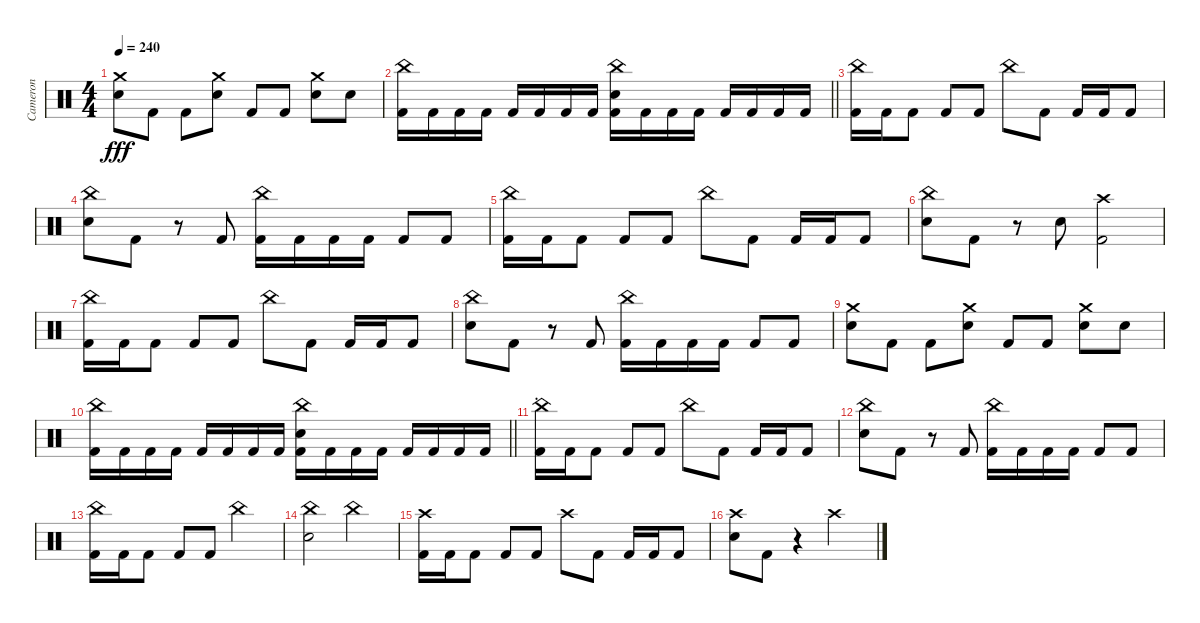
\track ("Cameron" "Cameron") {instrument percussion}
\staff {score}
\articulation defaults
\ts (4 4)
\tempo 240
\clef neutral
\ks c
("Crash medium (hit)" "Electric Snare (hit)").8{dy fff} "Kick (hit) 2".8 "Kick (hit) 2".8 ("Crash medium (hit)" "Electric Snare (hit)").8 "Kick (hit) 2".8 "Kick (hit) 2".8 ("Crash medium (hit)" "Electric Snare (hit)").8 "Electric Snare (hit)".8 |
\barLineRight lightlight
("China (hit)" "Kick (hit) 2").16 "Kick (hit) 2".16 "Kick (hit) 2".16 "Kick (hit) 2".16 "Kick (hit) 2".16 "Kick (hit) 2".16 "Kick (hit) 2".16 "Kick (hit) 2".16 ("China (hit)" "Electric Snare (hit)" "Kick (hit) 2").16 "Kick (hit) 2".16 "Kick (hit) 2".16 "Kick (hit) 2".16 "Kick (hit) 2".16 "Kick (hit) 2".16 "Kick (hit) 2".16 "Kick (hit) 2".16 |
("China (hit)" "Kick (hit) 2").16 "Kick (hit) 2".16 "Kick (hit) 2".8 "Kick (hit) 2".8 "Kick (hit) 2".8 "China (hit)".8 "Kick (hit) 2".8 "Kick (hit) 2".16 "Kick (hit) 2".16 "Kick (hit) 2".8 |
("China (hit)" "Electric Snare (hit)").8 "Kick (hit) 2".8 r.8 "Kick (hit) 2".8 ("China (hit)" "Kick (hit) 2").16 "Kick (hit) 2".16 "Kick (hit) 2".16 "Kick (hit) 2".16 "Kick (hit) 2".8 "Kick (hit) 2".8 |
("China (hit)" "Kick (hit) 2").16 "Kick (hit) 2".16 "Kick (hit) 2".8 "Kick (hit) 2".8 "Kick (hit) 2".8 "China (hit)".8 "Kick (hit) 2".8 "Kick (hit) 2".16 "Kick (hit) 2".16 "Kick (hit) 2".8 |
("China (hit)" "Electric Snare (hit)").8 "Kick (hit) 2".8 r.8 "Electric Snare (hit)".8 ("Crash high (hit)" "Kick (hit) 2").2 |
("China (hit)" "Kick (hit) 2").16 "Kick (hit) 2".16 "Kick (hit) 2".8 "Kick (hit) 2".8 "Kick (hit) 2".8 "China (hit)".8 "Kick (hit) 2".8 "Kick (hit) 2".16 "Kick (hit) 2".16 "Kick (hit) 2".8 |
("China (hit)" "Electric Snare (hit)").8 "Kick (hit) 2".8 r.8 "Kick (hit) 2".8 ("China (hit)" "Kick (hit) 2").16 "Kick (hit) 2".16 "Kick (hit) 2".16 "Kick (hit) 2".16 "Kick (hit) 2".8 "Kick (hit) 2".8 |
("Crash medium (hit)" "Electric Snare (hit)").8 "Kick (hit) 2".8 "Kick (hit) 2".8 ("Crash medium (hit)" "Electric Snare (hit)").8 "Kick (hit) 2".8 "Kick (hit) 2".8 ("Crash medium (hit)" "Electric Snare (hit)").8 "Electric Snare (hit)".8 |
\barLineRight lightlight
("China (hit)" "Kick (hit) 2").16 "Kick (hit) 2".16 "Kick (hit) 2".16 "Kick (hit) 2".16 "Kick (hit) 2".16 "Kick (hit) 2".16 "Kick (hit) 2".16 "Kick (hit) 2".16 ("China (hit)" "Electric Snare (hit)" "Kick (hit) 2").16 "Kick (hit) 2".16 "Kick (hit) 2".16 "Kick (hit) 2".16 "Kick (hit) 2".16 "Kick (hit) 2".16 "Kick (hit) 2".16 "Kick (hit) 2".16 |
\section ("" ".")
("China (hit)" "Kick (hit) 2").16 "Kick (hit) 2".16 "Kick (hit) 2".8 "Kick (hit) 2".8 "Kick (hit) 2".8 "China (hit)".8 "Kick (hit) 2".8 "Kick (hit) 2".16 "Kick (hit) 2".16 "Kick (hit) 2".8 |
("China (hit)" "Electric Snare (hit)").8 "Kick (hit) 2".8 r.8 "Kick (hit) 2".8 ("China (hit)" "Kick (hit) 2").16 "Kick (hit) 2".16 "Kick (hit) 2".16 "Kick (hit) 2".16 "Kick (hit) 2".8 "Kick (hit) 2".8 |
("China (hit)" "Kick (hit) 2").16 "Kick (hit) 2".16 "Kick (hit) 2".8 "Kick (hit) 2".8 "Kick (hit) 2".8 "China (hit)".2 |
("China (hit)" "Electric Snare (hit)").2 "China (hit)".2 |
("Crash high (hit)" "Kick (hit) 2").16 "Kick (hit) 2".16 "Kick (hit) 2".8 "Kick (hit) 2".8 "Kick (hit) 2".8 "Crash high (hit)".8 "Kick (hit) 2".8 "Kick (hit) 2".16 "Kick (hit) 2".16 "Kick (hit) 2".8 |
("Crash high (hit)" "Electric Snare (hit)").8 "Kick (hit) 2".8 r.4 "Crash high (hit)".2
